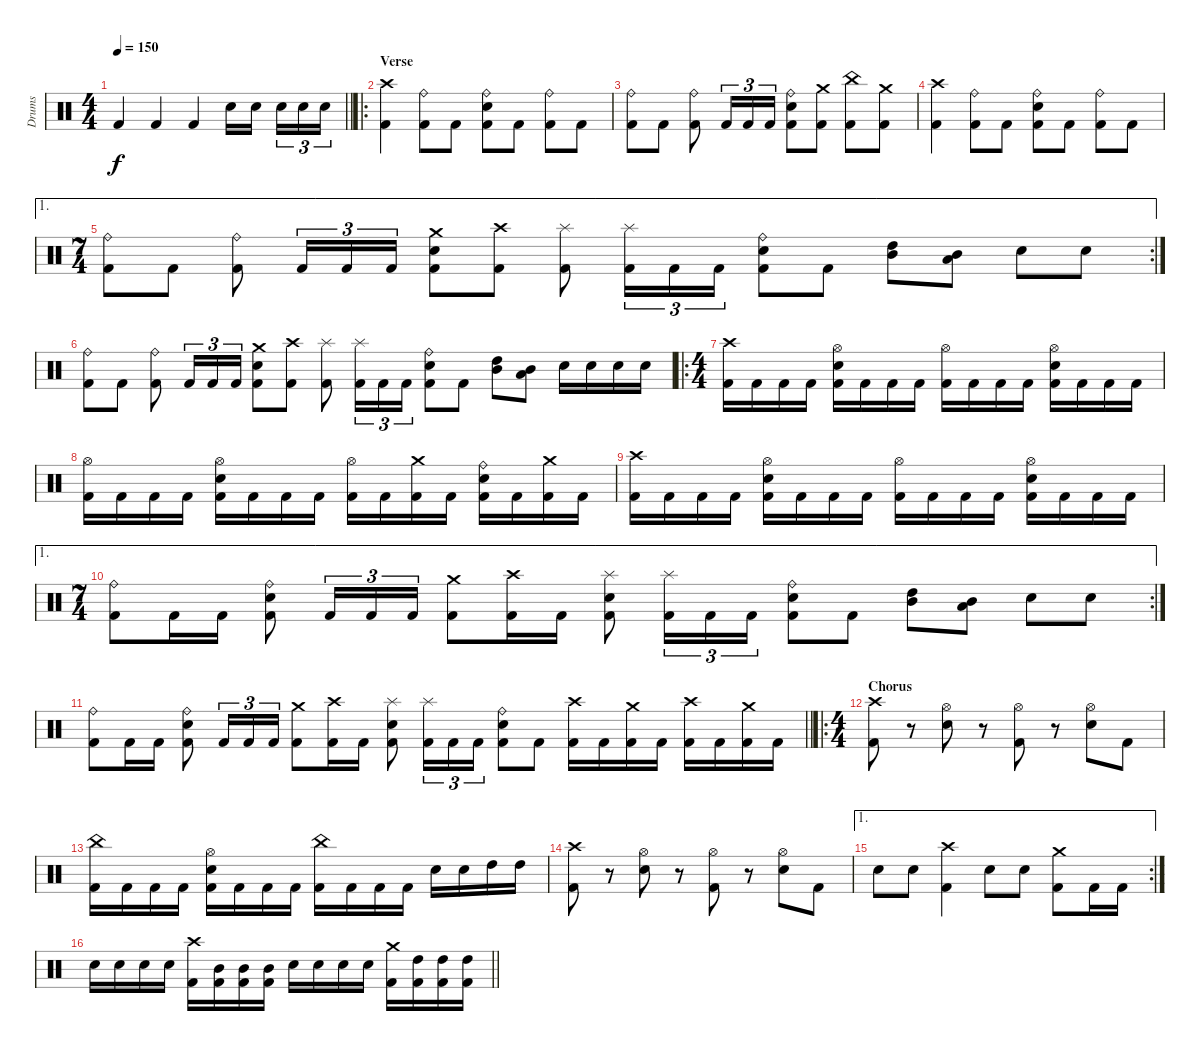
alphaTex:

\track ("Drums" "Drums") {instrument percussion}
\staff {score}
\articulation defaults
\ts (4 4)
\tempo 150
\clef neutral
\barLineRight lightlight
\ks c "Kick (hit) 2".4{dy f} "Kick (hit) 2".4 "Kick (hit) 2".4 "Snare (hit) 2".16 "Snare (hit) 2".16{beam splitsecondary} "Snare (hit) 2".16{tu (3 2)} "Snare (hit) 2".16{tu (3 2)} "Snare (hit) 2".16{tu (3 2)}
|
\ro
\section ("" "Verse")
("Crash high (hit)" "Kick (hit) 2").4 ("Ride (bell)" "Kick (hit) 2").8 "Kick (hit) 2".8 ("Ride (bell)" "Snare (hit) 2" "Kick (hit) 2").8 "Kick (hit) 2".8 ("Ride (bell)" "Kick (hit) 2").8 "Kick (hit) 2".8 |
("Ride (bell)" "Kick (hit) 2").8 "Kick (hit) 2".8 ("Ride (bell)" "Kick (hit) 2").8 "Kick (hit) 2".16{tu (3 2)} "Kick (hit) 2".16{tu (3 2)} "Kick (hit) 2".16{tu (3 2)} ("Ride (bell)" "Snare (hit) 2" "Kick (hit) 2").8 ("Crash medium (hit)" "Kick (hit) 2").8 ("China (hit)" "Kick (hit) 2").8 ("Crash medium (hit)" "Kick (hit) 2").8 |
("Crash high (hit)" "Kick (hit) 2").4 ("Ride (bell)" "Kick (hit) 2").8 "Kick (hit) 2".8 ("Ride (bell)" "Snare (hit) 2" "Kick (hit) 2").8 "Kick (hit) 2".8 ("Ride (bell)" "Kick (hit) 2").8 "Kick (hit) 2".8 |
\ae 1
\rc 2
\ts (7 4)
("Ride (bell)" "Kick (hit) 2").8 "Kick (hit) 2".8 ("Ride (bell)" "Kick (hit) 2").8 "Kick (hit) 2".16{tu (3 2)} "Kick (hit) 2".16{tu (3 2)} "Kick (hit) 2".16{tu (3 2)} ("Crash medium (hit)" "Snare (hit) 2" "Kick (hit) 2").8 ("Crash high (hit)" "Kick (hit) 2").8 ("Splash (hit)" "Kick (hit) 2").8 ("Splash (hit)" "Kick (hit) 2").16{tu (3 2)} "Kick (hit) 2".16{tu (3 2)} "Kick (hit) 2".16{tu (3 2)} ("Ride (bell)" "Snare (hit) 2" "Kick (hit) 2").8 "Kick (hit) 2".8 ("Mid Tom (hit)" "High Tom (hit)").8 ("Low Tom (hit)" "Mid Tom (hit)").8 "Snare (hit) 2".8 "Snare (hit) 2".8 |
("Ride (bell)" "Kick (hit) 2").8 "Kick (hit) 2".8 ("Ride (bell)" "Kick (hit) 2").8 "Kick (hit) 2".16{tu (3 2)} "Kick (hit) 2".16{tu (3 2)} "Kick (hit) 2".16{tu (3 2)} ("Crash medium (hit)" "Snare (hit) 2" "Kick (hit) 2").8 ("Crash high (hit)" "Kick (hit) 2").8 ("Splash (hit)" "Kick (hit) 2").8 ("Splash (hit)" "Kick (hit) 2").16{tu (3 2)} "Kick (hit) 2".16{tu (3 2)} "Kick (hit) 2".16{tu (3 2)} ("Ride (bell)" "Snare (hit) 2" "Kick (hit) 2").8 "Kick (hit) 2".8 ("Mid Tom (hit)" "High Tom (hit)").8 ("Low Tom (hit)" "Mid Tom (hit)").8 "Snare (hit) 2".16 "Snare (hit) 2".16 "Snare (hit) 2".16 "Snare (hit) 2".16 |
\ro
\ts (4 4)
("Crash high (hit)" "Kick (hit) 2").16 "Kick (hit) 2".16 "Kick (hit) 2".16 "Kick (hit) 2".16 ("Hi-Hat (open)" "Snare (hit) 2" "Kick (hit) 2").16 "Kick (hit) 2".16 "Kick (hit) 2".16 "Kick (hit) 2".16 ("Hi-Hat (open)" "Kick (hit) 2").16 "Kick (hit) 2".16 "Kick (hit) 2".16 "Kick (hit) 2".16 ("Hi-Hat (open)" "Snare (hit) 2" "Kick (hit) 2").16 "Kick (hit) 2".16 "Kick (hit) 2".16 "Kick (hit) 2".16 |
("Hi-Hat (open)" "Kick (hit) 2").16 "Kick (hit) 2".16 "Kick (hit) 2".16 "Kick (hit) 2".16 ("Hi-Hat (open)" "Snare (hit) 2" "Kick (hit) 2").16 "Kick (hit) 2".16 "Kick (hit) 2".16 "Kick (hit) 2".16 ("Hi-Hat (open)" "Kick (hit) 2").16 "Kick (hit) 2".16 ("Crash medium (hit)" "Kick (hit) 2").16 "Kick (hit) 2".16 ("Ride (bell)" "Snare (hit) 2" "Kick (hit) 2").16 "Kick (hit) 2".16 ("Crash medium (hit)" "Kick (hit) 2").16 "Kick (hit) 2".16 |
("Crash high (hit)" "Kick (hit) 2").16 "Kick (hit) 2".16 "Kick (hit) 2".16 "Kick (hit) 2".16 ("Hi-Hat (open)" "Snare (hit) 2" "Kick (hit) 2").16 "Kick (hit) 2".16 "Kick (hit) 2".16 "Kick (hit) 2".16 ("Hi-Hat (open)" "Kick (hit) 2").16 "Kick (hit) 2".16 "Kick (hit) 2".16 "Kick (hit) 2".16 ("Hi-Hat (open)" "Snare (hit) 2" "Kick (hit) 2").16 "Kick (hit) 2".16 "Kick (hit) 2".16 "Kick (hit) 2".16 |
\ae 1
\rc 2
\ts (7 4)
("Ride (bell)" "Kick (hit) 2").8 "Kick (hit) 2".16 "Kick (hit) 2".16 ("Ride (bell)" "Snare (hit) 2" "Kick (hit) 2").8 "Kick (hit) 2".16{tu (3 2)} "Kick (hit) 2".16{tu (3 2)} "Kick (hit) 2".16{tu (3 2)} ("Crash medium (hit)" "Kick (hit) 2").8 ("Crash high (hit)" "Kick (hit) 2").16 "Kick (hit) 2".16 ("Splash (hit)" "Snare (hit) 2" "Kick (hit) 2").8 ("Splash (hit)" "Kick (hit) 2").16{tu (3 2)} "Kick (hit) 2".16{tu (3 2)} "Kick (hit) 2".16{tu (3 2)} ("Ride (bell)" "Snare (hit) 2" "Kick (hit) 2").8 "Kick (hit) 2".8 ("Mid Tom (hit)" "High Tom (hit)").8 ("Low Tom (hit)" "Mid Tom (hit)").8 "Snare (hit) 2".8 "Snare (hit) 2".8 |
\barLineRight lightlight
("Ride (bell)" "Kick (hit) 2").8 "Kick (hit) 2".16 "Kick (hit) 2".16 ("Ride (bell)" "Snare (hit) 2" "Kick (hit) 2").8 "Kick (hit) 2".16{tu (3 2)} "Kick (hit) 2".16{tu (3 2)} "Kick (hit) 2".16{tu (3 2)} ("Crash medium (hit)" "Kick (hit) 2").8 ("Crash high (hit)" "Kick (hit) 2").16 "Kick (hit) 2".16 ("Splash (hit)" "Snare (hit) 2" "Kick (hit) 2").8 ("Splash (hit)" "Kick (hit) 2").16{tu (3 2)} "Kick (hit) 2".16{tu (3 2)} "Kick (hit) 2".16{tu (3 2)} ("Ride (bell)" "Snare (hit) 2" "Kick (hit) 2").8 "Kick (hit) 2".8 ("Crash high (hit)" "Kick (hit) 2").16 "Kick (hit) 2".16 ("Crash medium (hit)" "Kick (hit) 2").16 "Kick (hit) 2".16 ("Crash high (hit)" "Kick (hit) 2").16 "Kick (hit) 2".16 ("Crash medium (hit)" "Kick (hit) 2").16 "Kick (hit) 2".16 |
\ro
\ts (4 4)
\section ("" "Chorus")
("Crash high (hit)" "Kick (hit) 2").8 r.8 ("Hi-Hat (open)" "Snare (hit) 2").8 r.8 ("Hi-Hat (open)" "Kick (hit) 2").8 r.8 ("Hi-Hat (open)" "Snare (hit) 2").8 "Kick (hit) 2".8 |
("China (hit)" "Kick (hit) 2").16 "Kick (hit) 2".16 "Kick (hit) 2".16 "Kick (hit) 2".16 ("Hi-Hat (open)" "Snare (hit) 2" "Kick (hit) 2").16 "Kick (hit) 2".16 "Kick (hit) 2".16 "Kick (hit) 2".16 ("China (hit)" "Kick (hit) 2").16 "Kick (hit) 2".16 "Kick (hit) 2".16 "Kick (hit) 2".16 "Snare (hit) 2".16 "Snare (hit) 2".16 "High Tom (hit)".16 "High Tom (hit)".16 |
("Crash high (hit)" "Kick (hit) 2").8 r.8 ("Hi-Hat (open)" "Snare (hit) 2").8 r.8 ("Hi-Hat (open)" "Kick (hit) 2").8 r.8 ("Hi-Hat (open)" "Snare (hit) 2").8 "Kick (hit) 2".8 |
\ae 1
\rc 2 "Snare (hit) 2".8 "Snare (hit) 2".8
("Crash high (hit)" "Kick (hit) 2").4 "Snare (hit) 2".8 "Snare (hit) 2".8 ("Crash medium (hit)" "Kick (hit) 2").8 "Kick (hit) 2".16 "Kick (hit) 2".16 |
\barLineRight lightlight "Snare (hit) 2".16 "Snare (hit) 2".16 "Snare (hit) 2".16 "Snare (hit) 2".16
("Crash high (hit)" "Kick (hit) 2").16 ("Mid Tom (hit)" "Kick (hit) 2").16 ("Mid Tom (hit)" "Kick (hit) 2").16 ("Mid Tom (hit)" "Kick (hit) 2").16 "Snare (hit) 2".16 "Snare (hit) 2".16 "Snare (hit) 2".16 "Snare (hit) 2".16 ("Crash medium (hit)" "Kick (hit) 2").16 ("High Tom (hit)" "Kick (hit) 2").16 ("High Tom (hit)" "Kick (hit) 2").16 ("High Tom (hit)" "Kick (hit) 2").16
